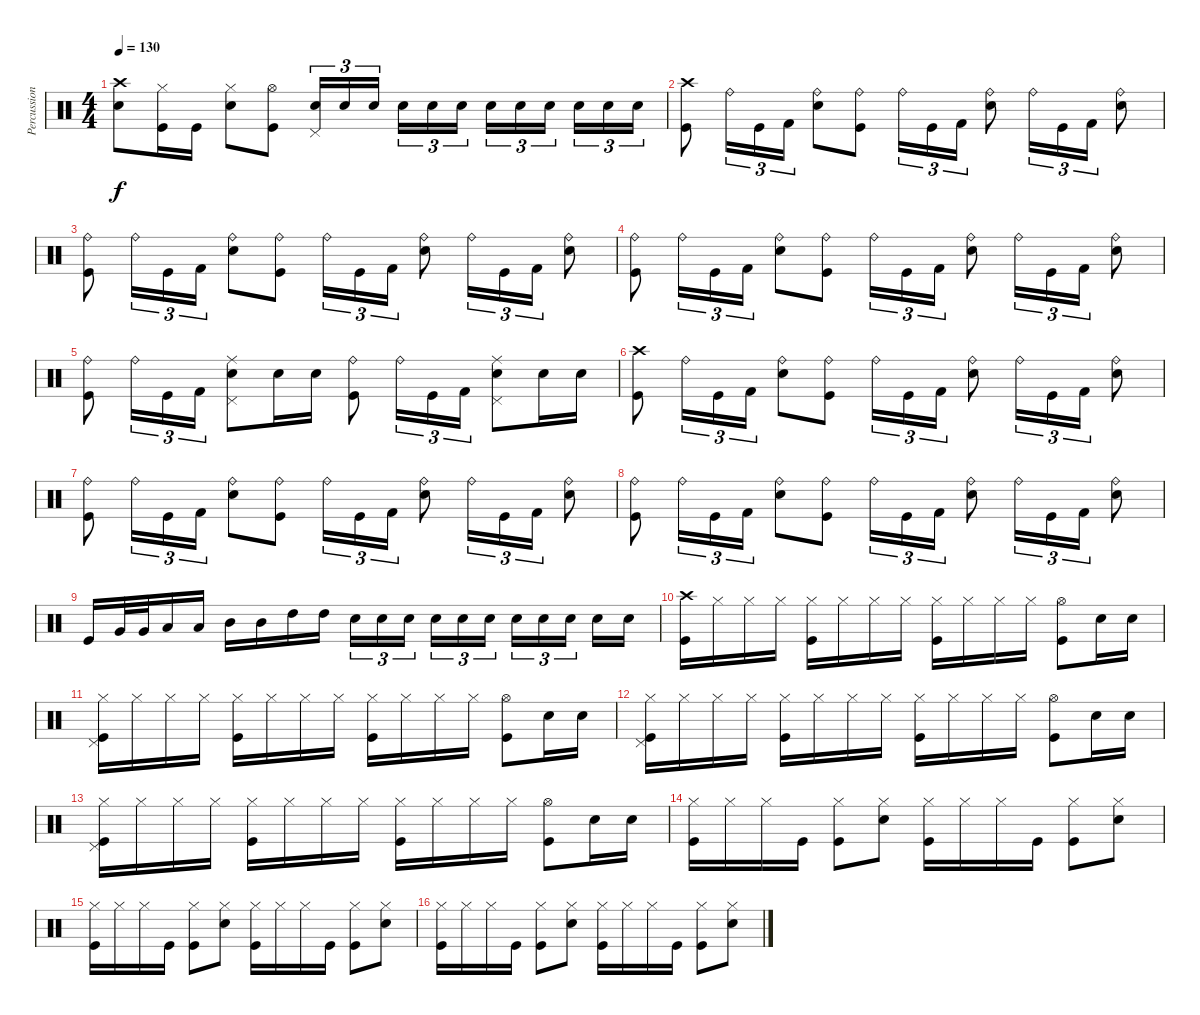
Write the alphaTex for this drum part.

\track ("Percussion" "Percussion") {instrument percussion}
\staff {score}
\articulation defaults
\ts (4 4)
\tempo 130
\clef neutral
\ks c
("Crash high (hit)" "Snare (hit) 2").8{dy f} ("Hi-Hat (closed)" "Kick (hit)").16 "Kick (hit)".16 ("Snare (hit) 2" "Hi-Hat (closed)").8 ("Hi-Hat (open)" "Kick (hit)").8 ("Snare (hit) 2" "Pedal Hi-Hat (hit)").16{tu (3 2)} "Snare (hit) 2".16{tu (3 2)} "Snare (hit) 2".16{tu (3 2)} "Snare (hit) 2".16{tu (3 2)} "Snare (hit) 2".16{tu (3 2)} "Snare (hit) 2".16{tu (3 2)} "Snare (hit) 2".16{tu (3 2)} "Snare (hit) 2".16{tu (3 2)} "Snare (hit) 2".16{tu (3 2)} "Snare (hit) 2".16{tu (3 2)} "Snare (hit) 2".16{tu (3 2)} "Snare (hit) 2".16{tu (3 2)} |
("Kick (hit)" "Crash high (hit)").8 "Ride (bell)".16{tu (3 2)} "Kick (hit)".16{tu (3 2)} "Kick (hit) 2".16{tu (3 2)} ("Snare (hit) 2" "Ride (bell)").8 ("Kick (hit)" "Ride (bell)").8 "Ride (bell)".16{tu (3 2)} "Kick (hit)".16{tu (3 2)} "Kick (hit) 2".16{tu (3 2)} ("Snare (hit) 2" "Ride (bell)").8 "Ride (bell)".16{tu (3 2)} "Kick (hit)".16{tu (3 2)} "Kick (hit) 2".16{tu (3 2)} ("Snare (hit) 2" "Ride (bell)").8 |
("Kick (hit)" "Ride (bell)").8 "Ride (bell)".16{tu (3 2)} "Kick (hit)".16{tu (3 2)} "Kick (hit) 2".16{tu (3 2)} ("Snare (hit) 2" "Ride (bell)").8 ("Kick (hit)" "Ride (bell)").8 "Ride (bell)".16{tu (3 2)} "Kick (hit)".16{tu (3 2)} "Kick (hit) 2".16{tu (3 2)} ("Snare (hit) 2" "Ride (bell)").8 "Ride (bell)".16{tu (3 2)} "Kick (hit)".16{tu (3 2)} "Kick (hit) 2".16{tu (3 2)} ("Snare (hit) 2" "Ride (bell)").8 |
("Kick (hit)" "Ride (bell)").8 "Ride (bell)".16{tu (3 2)} "Kick (hit)".16{tu (3 2)} "Kick (hit) 2".16{tu (3 2)} ("Snare (hit) 2" "Ride (bell)").8 ("Kick (hit)" "Ride (bell)").8 "Ride (bell)".16{tu (3 2)} "Kick (hit)".16{tu (3 2)} "Kick (hit) 2".16{tu (3 2)} ("Snare (hit) 2" "Ride (bell)").8 "Ride (bell)".16{tu (3 2)} "Kick (hit)".16{tu (3 2)} "Kick (hit) 2".16{tu (3 2)} ("Snare (hit) 2" "Ride (bell)").8 |
("Kick (hit)" "Ride (bell)").8 "Ride (bell)".16{tu (3 2)} "Kick (hit)".16{tu (3 2)} "Kick (hit) 2".16{tu (3 2)} ("Pedal Hi-Hat (hit)" "Ride (middle)" "Snare (hit) 2").8 "Snare (hit) 2".16 "Snare (hit) 2".16 ("Kick (hit)" "Ride (bell)").8 "Ride (bell)".16{tu (3 2)} "Kick (hit)".16{tu (3 2)} "Kick (hit) 2".16{tu (3 2)} ("Pedal Hi-Hat (hit)" "Ride (middle)" "Snare (hit) 2").8 "Snare (hit) 2".16 "Snare (hit) 2".16 |
("Kick (hit)" "Crash high (hit)").8 "Ride (bell)".16{tu (3 2)} "Kick (hit)".16{tu (3 2)} "Kick (hit) 2".16{tu (3 2)} ("Snare (hit) 2" "Ride (bell)").8 ("Kick (hit)" "Ride (bell)").8 "Ride (bell)".16{tu (3 2)} "Kick (hit)".16{tu (3 2)} "Kick (hit) 2".16{tu (3 2)} ("Snare (hit) 2" "Ride (bell)").8 "Ride (bell)".16{tu (3 2)} "Kick (hit)".16{tu (3 2)} "Kick (hit) 2".16{tu (3 2)} ("Snare (hit) 2" "Ride (bell)").8 |
("Kick (hit)" "Ride (bell)").8 "Ride (bell)".16{tu (3 2)} "Kick (hit)".16{tu (3 2)} "Kick (hit) 2".16{tu (3 2)} ("Snare (hit) 2" "Ride (bell)").8 ("Kick (hit)" "Ride (bell)").8 "Ride (bell)".16{tu (3 2)} "Kick (hit)".16{tu (3 2)} "Kick (hit) 2".16{tu (3 2)} ("Snare (hit) 2" "Ride (bell)").8 "Ride (bell)".16{tu (3 2)} "Kick (hit)".16{tu (3 2)} "Kick (hit) 2".16{tu (3 2)} ("Snare (hit) 2" "Ride (bell)").8 |
("Kick (hit)" "Ride (bell)").8 "Ride (bell)".16{tu (3 2)} "Kick (hit)".16{tu (3 2)} "Kick (hit) 2".16{tu (3 2)} ("Snare (hit) 2" "Ride (bell)").8 ("Kick (hit)" "Ride (bell)").8 "Ride (bell)".16{tu (3 2)} "Kick (hit)".16{tu (3 2)} "Kick (hit) 2".16{tu (3 2)} ("Snare (hit) 2" "Ride (bell)").8 "Ride (bell)".16{tu (3 2)} "Kick (hit)".16{tu (3 2)} "Kick (hit) 2".16{tu (3 2)} ("Snare (hit) 2" "Ride (bell)").8 |
"Kick (hit)".16 "Very Low Tom (hit)".32 "Very Low Tom (hit)".32 "Low Tom (hit)".16 "Low Tom (hit)".16 "Mid Tom (hit)".16 "Mid Tom (hit)".16 "High Tom (hit)".16 "High Tom (hit)".16 "Snare (hit) 2".16{tu (3 2)} "Snare (hit) 2".16{tu (3 2)} "Snare (hit) 2".16{tu (3 2)} "Snare (hit) 2".16{tu (3 2)} "Snare (hit) 2".16{tu (3 2)} "Snare (hit) 2".16{tu (3 2)} "Snare (hit) 2".16{tu (3 2)} "Snare (hit) 2".16{tu (3 2)} "Snare (hit) 2".16{tu (3 2)} "Snare (hit) 2".16 "Snare (hit) 2".16 |
("Kick (hit)" "Crash high (hit)").16 "Hi-Hat (closed)".16 "Hi-Hat (closed)".16 "Hi-Hat (closed)".16 ("Kick (hit)" "Hi-Hat (closed)").16 "Hi-Hat (closed)".16 "Hi-Hat (closed)".16 "Hi-Hat (closed)".16 ("Kick (hit)" "Hi-Hat (closed)").16 "Hi-Hat (closed)".16 "Hi-Hat (closed)".16 "Hi-Hat (closed)".16 ("Hi-Hat (open)" "Kick (hit)").8 "Snare (hit) 2".16 "Snare (hit) 2".16 |
("Kick (hit)" "Pedal Hi-Hat (hit)" "Hi-Hat (closed)").16 "Hi-Hat (closed)".16 "Hi-Hat (closed)".16 "Hi-Hat (closed)".16 ("Kick (hit)" "Hi-Hat (closed)").16 "Hi-Hat (closed)".16 "Hi-Hat (closed)".16 "Hi-Hat (closed)".16 ("Kick (hit)" "Hi-Hat (closed)").16 "Hi-Hat (closed)".16 "Hi-Hat (closed)".16 "Hi-Hat (closed)".16 ("Hi-Hat (open)" "Kick (hit)").8 "Snare (hit) 2".16 "Snare (hit) 2".16 |
("Kick (hit)" "Pedal Hi-Hat (hit)" "Hi-Hat (closed)").16 "Hi-Hat (closed)".16 "Hi-Hat (closed)".16 "Hi-Hat (closed)".16 ("Kick (hit)" "Hi-Hat (closed)").16 "Hi-Hat (closed)".16 "Hi-Hat (closed)".16 "Hi-Hat (closed)".16 ("Kick (hit)" "Hi-Hat (closed)").16 "Hi-Hat (closed)".16 "Hi-Hat (closed)".16 "Hi-Hat (closed)".16 ("Hi-Hat (open)" "Kick (hit)").8 "Snare (hit) 2".16 "Snare (hit) 2".16 |
("Kick (hit)" "Pedal Hi-Hat (hit)" "Hi-Hat (closed)").16 "Hi-Hat (closed)".16 "Hi-Hat (closed)".16 "Hi-Hat (closed)".16 ("Kick (hit)" "Hi-Hat (closed)").16 "Hi-Hat (closed)".16 "Hi-Hat (closed)".16 "Hi-Hat (closed)".16 ("Kick (hit)" "Hi-Hat (closed)").16 "Hi-Hat (closed)".16 "Hi-Hat (closed)".16 "Hi-Hat (closed)".16 ("Hi-Hat (open)" "Kick (hit)").8 "Snare (hit) 2".16 "Snare (hit) 2".16 |
("Kick (hit)" "Hi-Hat (closed)").16 "Hi-Hat (closed)".16 "Hi-Hat (closed)".16 "Kick (hit)".16 ("Kick (hit)" "Hi-Hat (closed)").8 ("Electric Snare (hit)" "Hi-Hat (closed)").8 ("Kick (hit)" "Hi-Hat (closed)").16 "Hi-Hat (closed)".16 "Hi-Hat (closed)".16 "Kick (hit)".16 ("Kick (hit)" "Hi-Hat (closed)").8 ("Electric Snare (hit)" "Hi-Hat (closed)").8 |
("Kick (hit)" "Hi-Hat (closed)").16 "Hi-Hat (closed)".16 "Hi-Hat (closed)".16 "Kick (hit)".16 ("Kick (hit)" "Hi-Hat (closed)").8 ("Electric Snare (hit)" "Hi-Hat (closed)").8 ("Kick (hit)" "Hi-Hat (closed)").16 "Hi-Hat (closed)".16 "Hi-Hat (closed)".16 "Kick (hit)".16 ("Kick (hit)" "Hi-Hat (closed)").8 ("Electric Snare (hit)" "Hi-Hat (closed)").8 |
("Kick (hit)" "Hi-Hat (closed)").16 "Hi-Hat (closed)".16 "Hi-Hat (closed)".16 "Kick (hit)".16 ("Kick (hit)" "Hi-Hat (closed)").8 ("Electric Snare (hit)" "Hi-Hat (closed)").8 ("Kick (hit)" "Hi-Hat (closed)").16 "Hi-Hat (closed)".16 "Hi-Hat (closed)".16 "Kick (hit)".16 ("Kick (hit)" "Hi-Hat (closed)").8 ("Electric Snare (hit)" "Hi-Hat (closed)").8
